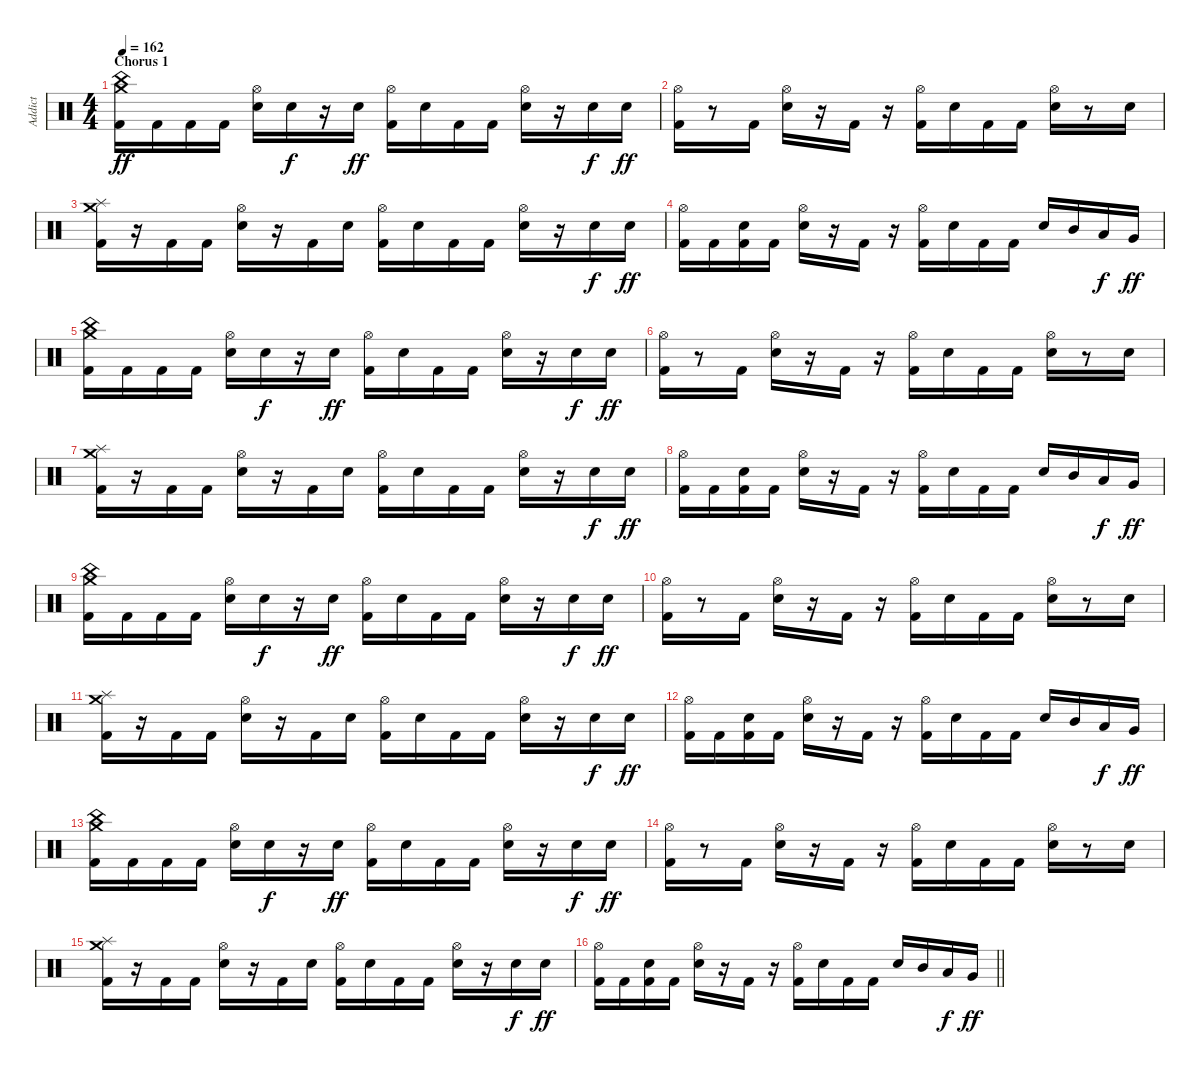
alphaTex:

\track ("Addict" "Addict") {instrument percussion}
\staff {score}
\articulation defaults
\ts (4 4)
\section ("" "Chorus 1")
\tempo 162
\clef neutral
\ks c
("Kick (hit) 2" "Crash medium (hit)" "China (hit)").16{dy ff} "Kick (hit) 2".16 "Kick (hit) 2".16 "Kick (hit) 2".16 ("Snare (hit) 2" "Hi-Hat (open)").16 "Snare (hit) 2".16{dy f} r.16 "Snare (hit) 2".16{dy ff} ("Kick (hit) 2" "Hi-Hat (open)").16 "Snare (hit) 2".16 "Kick (hit) 2".16 "Kick (hit) 2".16 ("Snare (hit) 2" "Hi-Hat (open)").16 r.16 "Snare (hit) 2".16{dy f} "Snare (hit) 2".16{dy ff} |
("Kick (hit) 2" "Hi-Hat (open)").16 r.8 "Kick (hit) 2".16 ("Snare (hit) 2" "Hi-Hat (open)").16 r.16 "Kick (hit) 2".16 r.16 ("Kick (hit) 2" "Hi-Hat (open)").16 "Snare (hit) 2".16 "Kick (hit) 2".16 "Kick (hit) 2".16 ("Snare (hit) 2" "Hi-Hat (open)").16 r.8 "Snare (hit) 2".16 |
("Kick (hit) 2" "Crash medium (hit)" "Splash (hit)").16 r.16 "Kick (hit) 2".16 "Kick (hit) 2".16 ("Snare (hit) 2" "Hi-Hat (open)").16 r.16 "Kick (hit) 2".16 "Snare (hit) 2".16 ("Kick (hit) 2" "Hi-Hat (open)").16 "Snare (hit) 2".16 "Kick (hit) 2".16 "Kick (hit) 2".16 ("Snare (hit) 2" "Hi-Hat (open)").16 r.16 "Snare (hit) 2".16{dy f} "Snare (hit) 2".16{dy ff} |
("Kick (hit) 2" "Hi-Hat (open)").16 "Kick (hit) 2".16 ("Kick (hit) 2" "Snare (hit) 2").16 "Kick (hit) 2".16 ("Snare (hit) 2" "Hi-Hat (open)").16 r.16 "Kick (hit) 2".16 r.16 ("Kick (hit) 2" "Hi-Hat (open)").16 "Snare (hit) 2".16 "Kick (hit) 2".16 "Kick (hit) 2".16 "Snare (hit) 2".16 "Mid Tom (hit)".16 "Low Tom (hit)".16{dy f} "Very Low Tom (hit)".16{dy ff} |
("Kick (hit) 2" "Crash medium (hit)" "China (hit)").16 "Kick (hit) 2".16 "Kick (hit) 2".16 "Kick (hit) 2".16 ("Snare (hit) 2" "Hi-Hat (open)").16 "Snare (hit) 2".16{dy f} r.16 "Snare (hit) 2".16{dy ff} ("Kick (hit) 2" "Hi-Hat (open)").16 "Snare (hit) 2".16 "Kick (hit) 2".16 "Kick (hit) 2".16 ("Snare (hit) 2" "Hi-Hat (open)").16 r.16 "Snare (hit) 2".16{dy f} "Snare (hit) 2".16{dy ff} |
("Kick (hit) 2" "Hi-Hat (open)").16 r.8 "Kick (hit) 2".16 ("Snare (hit) 2" "Hi-Hat (open)").16 r.16 "Kick (hit) 2".16 r.16 ("Kick (hit) 2" "Hi-Hat (open)").16 "Snare (hit) 2".16 "Kick (hit) 2".16 "Kick (hit) 2".16 ("Snare (hit) 2" "Hi-Hat (open)").16 r.8 "Snare (hit) 2".16 |
("Kick (hit) 2" "Crash medium (hit)" "Splash (hit)").16 r.16 "Kick (hit) 2".16 "Kick (hit) 2".16 ("Snare (hit) 2" "Hi-Hat (open)").16 r.16 "Kick (hit) 2".16 "Snare (hit) 2".16 ("Kick (hit) 2" "Hi-Hat (open)").16 "Snare (hit) 2".16 "Kick (hit) 2".16 "Kick (hit) 2".16 ("Snare (hit) 2" "Hi-Hat (open)").16 r.16 "Snare (hit) 2".16{dy f} "Snare (hit) 2".16{dy ff} |
("Kick (hit) 2" "Hi-Hat (open)").16 "Kick (hit) 2".16 ("Kick (hit) 2" "Snare (hit) 2").16 "Kick (hit) 2".16 ("Snare (hit) 2" "Hi-Hat (open)").16 r.16 "Kick (hit) 2".16 r.16 ("Kick (hit) 2" "Hi-Hat (open)").16 "Snare (hit) 2".16 "Kick (hit) 2".16 "Kick (hit) 2".16 "Snare (hit) 2".16 "Mid Tom (hit)".16 "Low Tom (hit)".16{dy f} "Very Low Tom (hit)".16{dy ff} |
("Kick (hit) 2" "Crash medium (hit)" "China (hit)").16 "Kick (hit) 2".16 "Kick (hit) 2".16 "Kick (hit) 2".16 ("Snare (hit) 2" "Hi-Hat (open)").16 "Snare (hit) 2".16{dy f} r.16 "Snare (hit) 2".16{dy ff} ("Kick (hit) 2" "Hi-Hat (open)").16 "Snare (hit) 2".16 "Kick (hit) 2".16 "Kick (hit) 2".16 ("Snare (hit) 2" "Hi-Hat (open)").16 r.16 "Snare (hit) 2".16{dy f} "Snare (hit) 2".16{dy ff} |
("Kick (hit) 2" "Hi-Hat (open)").16 r.8 "Kick (hit) 2".16 ("Snare (hit) 2" "Hi-Hat (open)").16 r.16 "Kick (hit) 2".16 r.16 ("Kick (hit) 2" "Hi-Hat (open)").16 "Snare (hit) 2".16 "Kick (hit) 2".16 "Kick (hit) 2".16 ("Snare (hit) 2" "Hi-Hat (open)").16 r.8 "Snare (hit) 2".16 |
("Kick (hit) 2" "Crash medium (hit)" "Splash (hit)").16 r.16 "Kick (hit) 2".16 "Kick (hit) 2".16 ("Snare (hit) 2" "Hi-Hat (open)").16 r.16 "Kick (hit) 2".16 "Snare (hit) 2".16 ("Kick (hit) 2" "Hi-Hat (open)").16 "Snare (hit) 2".16 "Kick (hit) 2".16 "Kick (hit) 2".16 ("Snare (hit) 2" "Hi-Hat (open)").16 r.16 "Snare (hit) 2".16{dy f} "Snare (hit) 2".16{dy ff} |
("Kick (hit) 2" "Hi-Hat (open)").16 "Kick (hit) 2".16 ("Kick (hit) 2" "Snare (hit) 2").16 "Kick (hit) 2".16 ("Snare (hit) 2" "Hi-Hat (open)").16 r.16 "Kick (hit) 2".16 r.16 ("Kick (hit) 2" "Hi-Hat (open)").16 "Snare (hit) 2".16 "Kick (hit) 2".16 "Kick (hit) 2".16 "Snare (hit) 2".16 "Mid Tom (hit)".16 "Low Tom (hit)".16{dy f} "Very Low Tom (hit)".16{dy ff} |
("Kick (hit) 2" "Crash medium (hit)" "China (hit)").16 "Kick (hit) 2".16 "Kick (hit) 2".16 "Kick (hit) 2".16 ("Snare (hit) 2" "Hi-Hat (open)").16 "Snare (hit) 2".16{dy f} r.16 "Snare (hit) 2".16{dy ff} ("Kick (hit) 2" "Hi-Hat (open)").16 "Snare (hit) 2".16 "Kick (hit) 2".16 "Kick (hit) 2".16 ("Snare (hit) 2" "Hi-Hat (open)").16 r.16 "Snare (hit) 2".16{dy f} "Snare (hit) 2".16{dy ff} |
("Kick (hit) 2" "Hi-Hat (open)").16 r.8 "Kick (hit) 2".16 ("Snare (hit) 2" "Hi-Hat (open)").16 r.16 "Kick (hit) 2".16 r.16 ("Kick (hit) 2" "Hi-Hat (open)").16 "Snare (hit) 2".16 "Kick (hit) 2".16 "Kick (hit) 2".16 ("Snare (hit) 2" "Hi-Hat (open)").16 r.8 "Snare (hit) 2".16 |
("Kick (hit) 2" "Crash medium (hit)" "Splash (hit)").16 r.16 "Kick (hit) 2".16 "Kick (hit) 2".16 ("Snare (hit) 2" "Hi-Hat (open)").16 r.16 "Kick (hit) 2".16 "Snare (hit) 2".16 ("Kick (hit) 2" "Hi-Hat (open)").16 "Snare (hit) 2".16 "Kick (hit) 2".16 "Kick (hit) 2".16 ("Snare (hit) 2" "Hi-Hat (open)").16 r.16 "Snare (hit) 2".16{dy f} "Snare (hit) 2".16{dy ff} |
\barLineRight lightlight
("Kick (hit) 2" "Hi-Hat (open)").16 "Kick (hit) 2".16 ("Kick (hit) 2" "Snare (hit) 2").16 "Kick (hit) 2".16 ("Snare (hit) 2" "Hi-Hat (open)").16 r.16 "Kick (hit) 2".16 r.16 ("Kick (hit) 2" "Hi-Hat (open)").16 "Snare (hit) 2".16 "Kick (hit) 2".16 "Kick (hit) 2".16 "Snare (hit) 2".16 "Mid Tom (hit)".16 "Low Tom (hit)".16{dy f} "Very Low Tom (hit)".16{dy ff}
